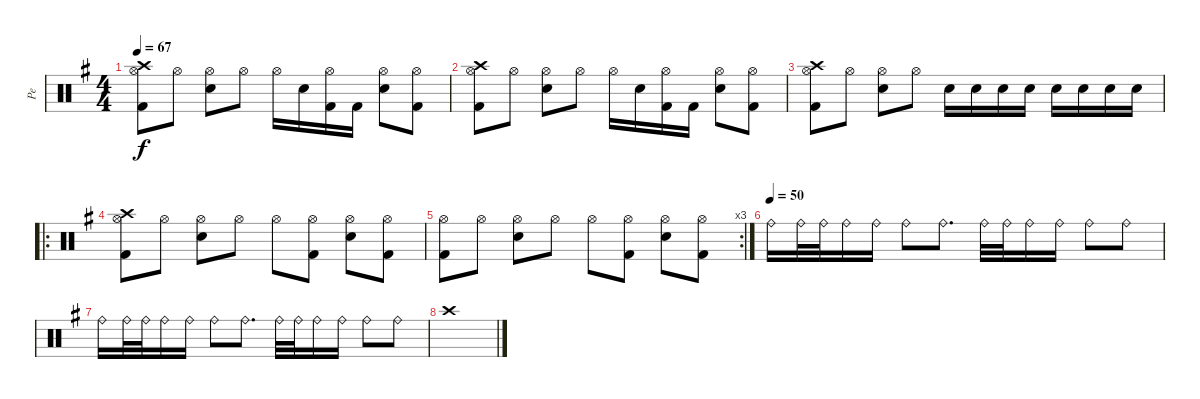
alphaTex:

\track ("Pe" "Pe") {instrument percussion}
\staff {score}
\articulation defaults
\ts (4 4)
\tempo 67
\clef neutral
\ks g
("Crash high (hit)" "Hi-Hat (open)" "Kick (hit) 2").8{dy f} "Hi-Hat (open)".8 ("Snare (hit) 2" "Hi-Hat (open)").8 "Hi-Hat (open)".8 "Hi-Hat (open)".16 "Snare (hit) 2".16 ("Hi-Hat (open)" "Kick (hit) 2").16 "Kick (hit) 2".16 ("Snare (hit) 2" "Hi-Hat (open)").8 ("Hi-Hat (open)" "Kick (hit) 2").8 |
("Crash high (hit)" "Hi-Hat (open)" "Kick (hit) 2").8 "Hi-Hat (open)".8 ("Snare (hit) 2" "Hi-Hat (open)").8 "Hi-Hat (open)".8 "Hi-Hat (open)".16 "Snare (hit) 2".16 ("Hi-Hat (open)" "Kick (hit) 2").16 "Kick (hit) 2".16 ("Snare (hit) 2" "Hi-Hat (open)").8 ("Hi-Hat (open)" "Kick (hit) 2").8 |
("Crash high (hit)" "Hi-Hat (open)" "Kick (hit) 2").8 "Hi-Hat (open)".8 ("Snare (hit) 2" "Hi-Hat (open)").8 "Hi-Hat (open)".8 "Snare (hit) 2".16 "Snare (hit) 2".16 "Snare (hit) 2".16 "Snare (hit) 2".16 "Snare (hit) 2".16 "Snare (hit) 2".16 "Snare (hit) 2".16 "Snare (hit) 2".16 |
\ro
("Crash high (hit)" "Hi-Hat (open)" "Kick (hit) 2").8 "Hi-Hat (open)".8 ("Snare (hit) 2" "Hi-Hat (open)").8 "Hi-Hat (open)".8 "Hi-Hat (open)".8 ("Hi-Hat (open)" "Kick (hit) 2").8 ("Snare (hit) 2" "Hi-Hat (open)").8 ("Hi-Hat (open)" "Kick (hit) 2").8 |
\rc 3
("Hi-Hat (open)" "Kick (hit) 2").8 "Hi-Hat (open)".8 ("Snare (hit) 2" "Hi-Hat (open)").8 "Hi-Hat (open)".8 "Hi-Hat (open)".8 ("Hi-Hat (open)" "Kick (hit) 2").8 ("Snare (hit) 2" "Hi-Hat (open)").8 ("Hi-Hat (open)" "Kick (hit) 2").8 |
\tempo (50)
"Ride (bell)".16 "Ride (bell)".32 "Ride (bell)".32 "Ride (bell)".16 "Ride (bell)".16 "Ride (bell)".8 "Ride (bell)".8{d} "Ride (bell)".32 "Ride (bell)".32 "Ride (bell)".16 "Ride (bell)".16 "Ride (bell)".8 "Ride (bell)".8 |
"Ride (bell)".16 "Ride (bell)".32 "Ride (bell)".32 "Ride (bell)".16 "Ride (bell)".16 "Ride (bell)".8 "Ride (bell)".8{d} "Ride (bell)".32 "Ride (bell)".32 "Ride (bell)".16 "Ride (bell)".16 "Ride (bell)".8 "Ride (bell)".8 |
"Crash high (hit)".1
